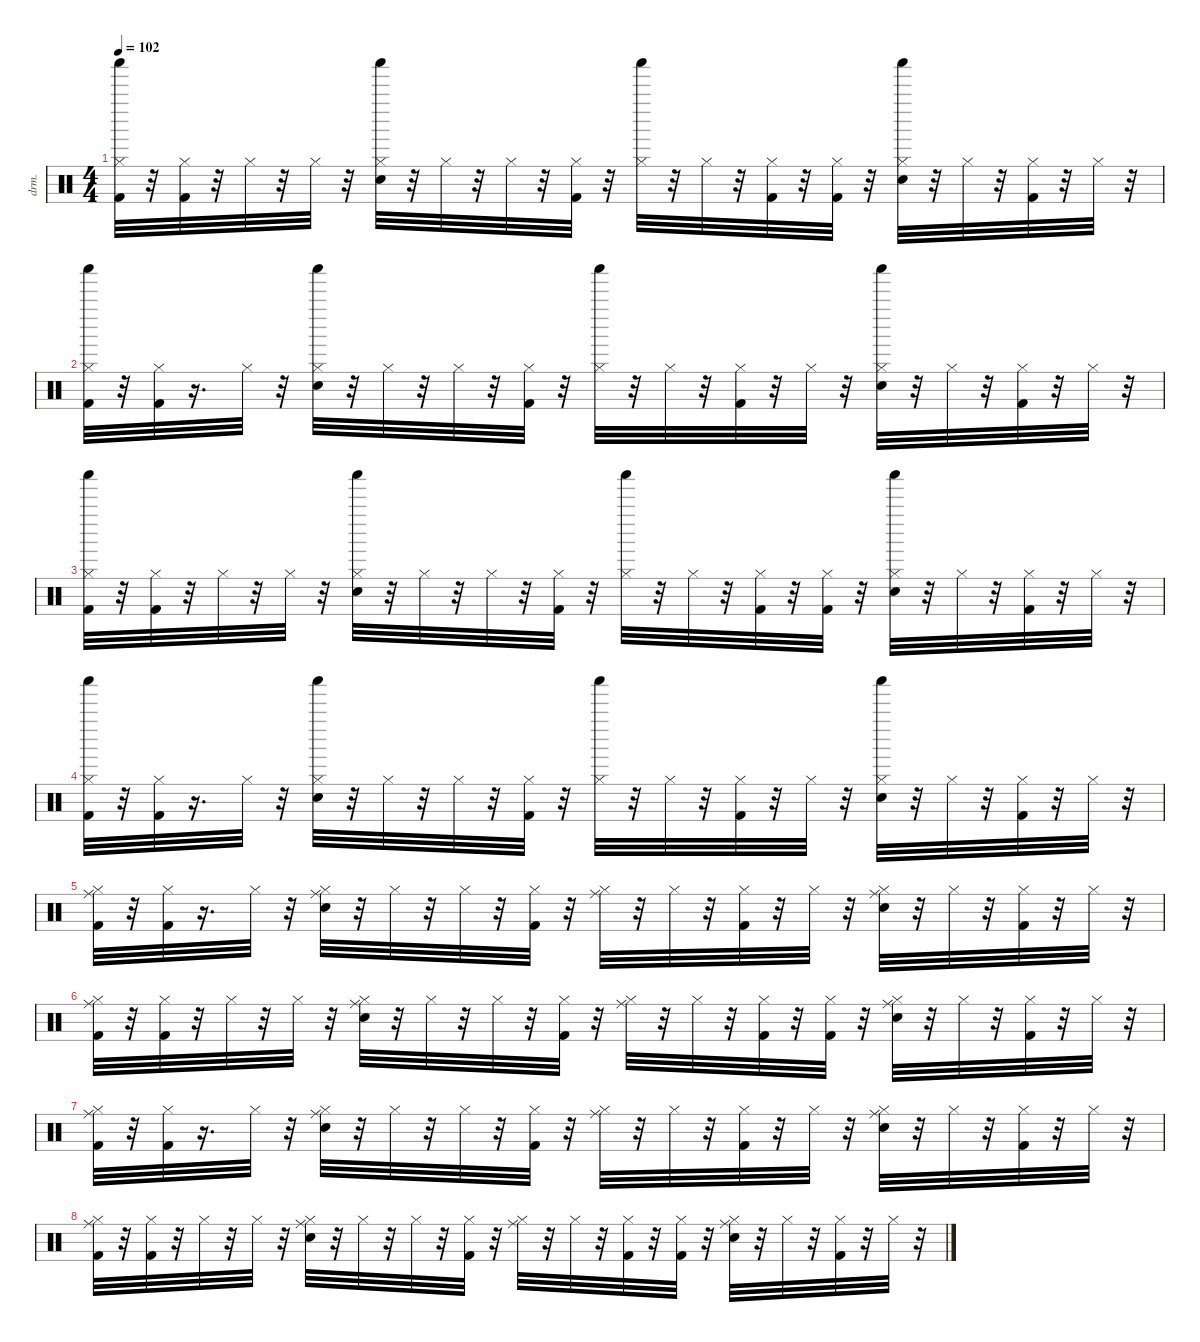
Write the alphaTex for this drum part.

\defaultSystemsLayout 4
\hideDynamics
\bracketExtendMode nobrackets
\otherSystemsTrackNameOrientation horizontal
\track ("Nick Mason / Gary Wallis" "drm.") {instrument percussion}
\staff {score}
\articulation defaults
\ts (4 4)
\tempo 102
\clef neutral
\ks c
("Kick (hit) 2" "Hi-Hat (closed)" "Shaker (hit)").32{dy ff beam Down} r.32{beam Down} ("Hi-Hat (closed)" "Kick (hit) 2").32{dy pp beam Down} r.32{beam Down} "Hi-Hat (closed)".32{dy ppp beam Down} r.32{beam Down} "Hi-Hat (closed)".32{dy p beam Down} r.32{beam Down} ("Snare (hit) 2" "Hi-Hat (closed)" "Shaker (hit)").32{beam Down} r.32{beam Down} "Hi-Hat (closed)".32{dy ppp beam Down} r.32{beam Down} "Hi-Hat (closed)".32{dy mp beam Down} r.32{beam Down} ("Hi-Hat (closed)" "Kick (hit) 2").32{dy ppp beam Down} r.32{beam Down} ("Hi-Hat (closed)" "Shaker (hit)").32{dy mf beam Down} r.32{beam Down} "Hi-Hat (closed)".32{dy pp beam Down} r.32{beam Down} ("Hi-Hat (closed)" "Kick (hit) 2").32{dy ppp beam Down} r.32{beam Down} ("Hi-Hat (closed)" "Kick (hit) 2").32{dy p beam Down} r.32{beam Down} ("Snare (hit) 2" "Hi-Hat (closed)" "Shaker (hit)").32{beam Down} r.32{beam Down} "Hi-Hat (closed)".32{dy ppp beam Down} r.32{beam Down} ("Kick (hit) 2" "Hi-Hat (closed)").32{dy f beam Down} r.32{beam Down} "Hi-Hat (closed)".32{dy p beam Down} r.32{beam Down} |
("Kick (hit) 2" "Hi-Hat (closed)" "Shaker (hit)").32{dy ff beam Down} r.32{beam Down} ("Hi-Hat (closed)" "Kick (hit) 2").32{dy mp beam Down} r.16{d beam Down} "Hi-Hat (closed)".32{dy pp beam Down} r.32{beam Down} ("Snare (hit) 2" "Hi-Hat (closed)" "Shaker (hit)").32{dy p beam Down} r.32{beam Down} "Hi-Hat (closed)".32{dy pp beam Down} r.32{beam Down} "Hi-Hat (closed)".32{dy mp beam Down} r.32{beam Down} ("Hi-Hat (closed)" "Kick (hit) 2").32{dy ppp beam Down} r.32{beam Down} ("Hi-Hat (closed)" "Shaker (hit)").32{dy mf beam Down} r.32{beam Down} "Hi-Hat (closed)".32{dy ppp beam Down} r.32{beam Down} ("Hi-Hat (closed)" "Kick (hit) 2").32{dy pp beam Down} r.32{beam Down} "Hi-Hat (closed)".32{beam Down} r.32{beam Down} ("Snare (hit) 2" "Hi-Hat (closed)" "Shaker (hit)").32{dy p beam Down} r.32{beam Down} "Hi-Hat (closed)".32{dy ppp beam Down} r.32{beam Down} ("Kick (hit) 2" "Hi-Hat (closed)").32{dy f beam Down} r.32{beam Down} "Hi-Hat (closed)".32{dy mp beam Down} r.32{beam Down} |
("Kick (hit) 2" "Hi-Hat (closed)" "Shaker (hit)").32{dy ff beam Down} r.32{beam Down} ("Hi-Hat (closed)" "Kick (hit) 2").32{dy pp beam Down} r.32{beam Down} "Hi-Hat (closed)".32{dy ppp beam Down} r.32{beam Down} "Hi-Hat (closed)".32{dy p beam Down} r.32{beam Down} ("Snare (hit) 2" "Hi-Hat (closed)" "Shaker (hit)").32{beam Down} r.32{beam Down} "Hi-Hat (closed)".32{dy ppp beam Down} r.32{beam Down} "Hi-Hat (closed)".32{dy mp beam Down} r.32{beam Down} ("Hi-Hat (closed)" "Kick (hit) 2").32{dy ppp beam Down} r.32{beam Down} ("Hi-Hat (closed)" "Shaker (hit)").32{dy mf beam Down} r.32{beam Down} "Hi-Hat (closed)".32{dy pp beam Down} r.32{beam Down} ("Hi-Hat (closed)" "Kick (hit) 2").32{dy ppp beam Down} r.32{beam Down} ("Hi-Hat (closed)" "Kick (hit) 2").32{dy p beam Down} r.32{beam Down} ("Snare (hit) 2" "Hi-Hat (closed)" "Shaker (hit)").32{beam Down} r.32{beam Down} "Hi-Hat (closed)".32{dy ppp beam Down} r.32{beam Down} ("Kick (hit) 2" "Hi-Hat (closed)").32{dy f beam Down} r.32{beam Down} "Hi-Hat (closed)".32{dy p beam Down} r.32{beam Down} |
("Kick (hit) 2" "Hi-Hat (closed)" "Shaker (hit)").32{dy ff beam Down} r.32{beam Down} ("Hi-Hat (closed)" "Kick (hit) 2").32{dy mp beam Down} r.16{d beam Down} "Hi-Hat (closed)".32{dy pp beam Down} r.32{beam Down} ("Snare (hit) 2" "Hi-Hat (closed)" "Shaker (hit)").32{dy p beam Down} r.32{beam Down} "Hi-Hat (closed)".32{dy pp beam Down} r.32{beam Down} "Hi-Hat (closed)".32{dy mp beam Down} r.32{beam Down} ("Hi-Hat (closed)" "Kick (hit) 2").32{dy ppp beam Down} r.32{beam Down} ("Hi-Hat (closed)" "Shaker (hit)").32{dy mf beam Down} r.32{beam Down} "Hi-Hat (closed)".32{dy ppp beam Down} r.32{beam Down} ("Hi-Hat (closed)" "Kick (hit) 2").32{dy pp beam Down} r.32{beam Down} "Hi-Hat (closed)".32{beam Down} r.32{beam Down} ("Snare (hit) 2" "Hi-Hat (closed)" "Shaker (hit)").32{dy p beam Down} r.32{beam Down} "Hi-Hat (closed)".32{dy ppp beam Down} r.32{beam Down} ("Kick (hit) 2" "Hi-Hat (closed)").32{dy f beam Down} r.32{beam Down} "Hi-Hat (closed)".32{dy mp beam Down} r.32{beam Down} |
("Kick (hit) 2" "Hi-Hat (closed)" "Ride (middle)").32{dy ff beam Down} r.32{beam Down} ("Hi-Hat (closed)" "Kick (hit) 2").32{dy mp beam Down} r.16{d beam Down} "Hi-Hat (closed)".32{dy pp beam Down} r.32{beam Down} ("Snare (hit) 2" "Hi-Hat (closed)" "Ride (middle)").32{dy p beam Down} r.32{beam Down} "Hi-Hat (closed)".32{dy pp beam Down} r.32{beam Down} "Hi-Hat (closed)".32{dy mp beam Down} r.32{beam Down} ("Hi-Hat (closed)" "Kick (hit) 2").32{dy ppp beam Down} r.32{beam Down} ("Hi-Hat (closed)" "Ride (middle)").32{dy mf beam Down} r.32{beam Down} "Hi-Hat (closed)".32{dy ppp beam Down} r.32{beam Down} ("Hi-Hat (closed)" "Kick (hit) 2").32{dy pp beam Down} r.32{beam Down} "Hi-Hat (closed)".32{beam Down} r.32{beam Down} ("Snare (hit) 2" "Hi-Hat (closed)" "Ride (middle)").32{dy p beam Down} r.32{beam Down} "Hi-Hat (closed)".32{dy ppp beam Down} r.32{beam Down} ("Kick (hit) 2" "Hi-Hat (closed)").32{dy f beam Down} r.32{beam Down} "Hi-Hat (closed)".32{dy mp beam Down} r.32{beam Down} |
("Kick (hit) 2" "Hi-Hat (closed)" "Ride (middle)").32{dy ff beam Down} r.32{beam Down} ("Hi-Hat (closed)" "Kick (hit) 2").32{dy pp beam Down} r.32{beam Down} "Hi-Hat (closed)".32{dy ppp beam Down} r.32{beam Down} "Hi-Hat (closed)".32{dy p beam Down} r.32{beam Down} ("Snare (hit) 2" "Hi-Hat (closed)" "Ride (middle)").32{beam Down} r.32{beam Down} "Hi-Hat (closed)".32{dy ppp beam Down} r.32{beam Down} "Hi-Hat (closed)".32{dy mp beam Down} r.32{beam Down} ("Hi-Hat (closed)" "Kick (hit) 2").32{dy ppp beam Down} r.32{beam Down} ("Hi-Hat (closed)" "Ride (middle)").32{dy mf beam Down} r.32{beam Down} "Hi-Hat (closed)".32{dy pp beam Down} r.32{beam Down} ("Hi-Hat (closed)" "Kick (hit) 2").32{dy ppp beam Down} r.32{beam Down} ("Hi-Hat (closed)" "Kick (hit) 2").32{dy p beam Down} r.32{beam Down} ("Snare (hit) 2" "Hi-Hat (closed)" "Ride (middle)").32{beam Down} r.32{beam Down} "Hi-Hat (closed)".32{dy ppp beam Down} r.32{beam Down} ("Kick (hit) 2" "Hi-Hat (closed)").32{dy f beam Down} r.32{beam Down} "Hi-Hat (closed)".32{dy p beam Down} r.32{beam Down} |
("Kick (hit) 2" "Hi-Hat (closed)" "Ride (middle)").32{dy ff beam Down} r.32{beam Down} ("Hi-Hat (closed)" "Kick (hit) 2").32{dy mp beam Down} r.16{d beam Down} "Hi-Hat (closed)".32{dy pp beam Down} r.32{beam Down} ("Snare (hit) 2" "Hi-Hat (closed)" "Ride (middle)").32{dy p beam Down} r.32{beam Down} "Hi-Hat (closed)".32{dy pp beam Down} r.32{beam Down} "Hi-Hat (closed)".32{dy mp beam Down} r.32{beam Down} ("Hi-Hat (closed)" "Kick (hit) 2").32{dy ppp beam Down} r.32{beam Down} ("Hi-Hat (closed)" "Ride (middle)").32{dy mf beam Down} r.32{beam Down} "Hi-Hat (closed)".32{dy ppp beam Down} r.32{beam Down} ("Hi-Hat (closed)" "Kick (hit) 2").32{dy pp beam Down} r.32{beam Down} "Hi-Hat (closed)".32{beam Down} r.32{beam Down} ("Snare (hit) 2" "Hi-Hat (closed)" "Ride (middle)").32{dy p beam Down} r.32{beam Down} "Hi-Hat (closed)".32{dy ppp beam Down} r.32{beam Down} ("Kick (hit) 2" "Hi-Hat (closed)").32{dy f beam Down} r.32{beam Down} "Hi-Hat (closed)".32{dy mp beam Down} r.32{beam Down} |
("Kick (hit) 2" "Hi-Hat (closed)" "Ride (middle)").32{dy ff beam Down} r.32{beam Down} ("Hi-Hat (closed)" "Kick (hit) 2").32{dy pp beam Down} r.32{beam Down} "Hi-Hat (closed)".32{dy ppp beam Down} r.32{beam Down} "Hi-Hat (closed)".32{dy p beam Down} r.32{beam Down} ("Snare (hit) 2" "Hi-Hat (closed)" "Ride (middle)").32{beam Down} r.32{beam Down} "Hi-Hat (closed)".32{dy ppp beam Down} r.32{beam Down} "Hi-Hat (closed)".32{dy mp beam Down} r.32{beam Down} ("Hi-Hat (closed)" "Kick (hit) 2").32{dy ppp beam Down} r.32{beam Down} ("Hi-Hat (closed)" "Ride (middle)").32{dy mf beam Down} r.32{beam Down} "Hi-Hat (closed)".32{dy pp beam Down} r.32{beam Down} ("Hi-Hat (closed)" "Kick (hit) 2").32{dy ppp beam Down} r.32{beam Down} ("Hi-Hat (closed)" "Kick (hit) 2").32{dy p beam Down} r.32{beam Down} ("Snare (hit) 2" "Hi-Hat (closed)" "Ride (middle)").32{beam Down} r.32{beam Down} "Hi-Hat (closed)".32{dy ppp beam Down} r.32{beam Down} ("Kick (hit) 2" "Hi-Hat (closed)").32{dy f beam Down} r.32{beam Down} "Hi-Hat (closed)".32{dy p beam Down} r.32{beam Down}
